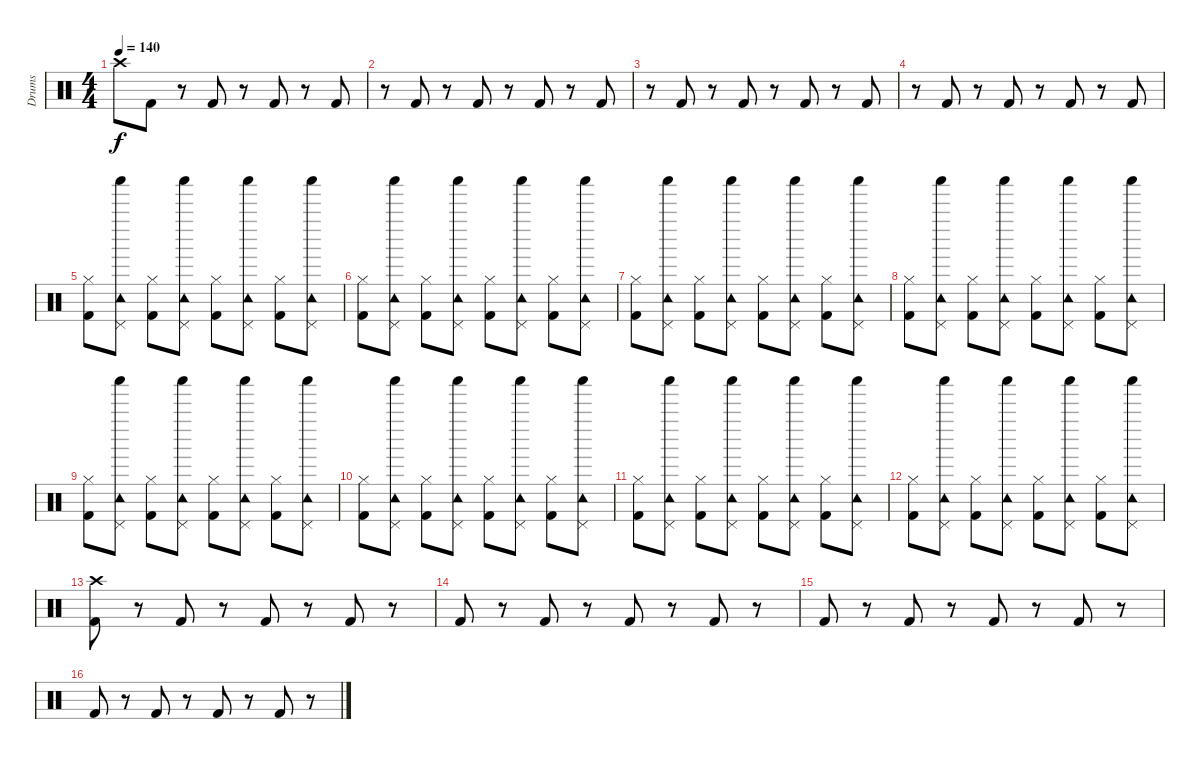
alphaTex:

\track ("Drums" "Drums") {instrument percussion}
\staff {score}
\articulation defaults
\ts (4 4)
\tempo 140
\clef neutral
\ks c "Crash high (hit)".8{dy f} "Kick (hit) 2".8
r.8 "Kick (hit) 2".8 r.8 "Kick (hit) 2".8 r.8 "Kick (hit) 2".8 |
r.8 "Kick (hit) 2".8 r.8 "Kick (hit) 2".8 r.8 "Kick (hit) 2".8 r.8 "Kick (hit) 2".8 |
r.8 "Kick (hit) 2".8 r.8 "Kick (hit) 2".8 r.8 "Kick (hit) 2".8 r.8 "Kick (hit) 2".8 |
r.8 "Kick (hit) 2".8 r.8 "Kick (hit) 2".8 r.8 "Kick (hit) 2".8 r.8 "Kick (hit) 2".8 |
("Kick (hit) 2" "Hi-Hat (closed)").8 ("Pedal Hi-Hat (hit)" "Tambourine (hit)" "Shaker (hit)").8 ("Kick (hit) 2" "Hi-Hat (closed)").8 ("Pedal Hi-Hat (hit)" "Tambourine (hit)" "Shaker (hit)").8 ("Kick (hit) 2" "Hi-Hat (closed)").8 ("Pedal Hi-Hat (hit)" "Tambourine (hit)" "Shaker (hit)").8 ("Kick (hit) 2" "Hi-Hat (closed)").8 ("Pedal Hi-Hat (hit)" "Tambourine (hit)" "Shaker (hit)").8 |
("Kick (hit) 2" "Hi-Hat (closed)").8 ("Pedal Hi-Hat (hit)" "Tambourine (hit)" "Shaker (hit)").8 ("Kick (hit) 2" "Hi-Hat (closed)").8 ("Pedal Hi-Hat (hit)" "Tambourine (hit)" "Shaker (hit)").8 ("Kick (hit) 2" "Hi-Hat (closed)").8 ("Pedal Hi-Hat (hit)" "Tambourine (hit)" "Shaker (hit)").8 ("Kick (hit) 2" "Hi-Hat (closed)").8 ("Pedal Hi-Hat (hit)" "Tambourine (hit)" "Shaker (hit)").8 |
("Kick (hit) 2" "Hi-Hat (closed)").8 ("Pedal Hi-Hat (hit)" "Tambourine (hit)" "Shaker (hit)").8 ("Kick (hit) 2" "Hi-Hat (closed)").8 ("Pedal Hi-Hat (hit)" "Tambourine (hit)" "Shaker (hit)").8 ("Kick (hit) 2" "Hi-Hat (closed)").8 ("Pedal Hi-Hat (hit)" "Tambourine (hit)" "Shaker (hit)").8 ("Kick (hit) 2" "Hi-Hat (closed)").8 ("Pedal Hi-Hat (hit)" "Tambourine (hit)" "Shaker (hit)").8 |
("Kick (hit) 2" "Hi-Hat (closed)").8 ("Pedal Hi-Hat (hit)" "Tambourine (hit)" "Shaker (hit)").8 ("Kick (hit) 2" "Hi-Hat (closed)").8 ("Pedal Hi-Hat (hit)" "Tambourine (hit)" "Shaker (hit)").8 ("Kick (hit) 2" "Hi-Hat (closed)").8 ("Pedal Hi-Hat (hit)" "Tambourine (hit)" "Shaker (hit)").8 ("Kick (hit) 2" "Hi-Hat (closed)").8 ("Pedal Hi-Hat (hit)" "Tambourine (hit)" "Shaker (hit)").8 |
("Kick (hit) 2" "Hi-Hat (closed)").8 ("Pedal Hi-Hat (hit)" "Tambourine (hit)" "Shaker (hit)").8 ("Kick (hit) 2" "Hi-Hat (closed)").8 ("Pedal Hi-Hat (hit)" "Tambourine (hit)" "Shaker (hit)").8 ("Kick (hit) 2" "Hi-Hat (closed)").8 ("Pedal Hi-Hat (hit)" "Tambourine (hit)" "Shaker (hit)").8 ("Kick (hit) 2" "Hi-Hat (closed)").8 ("Pedal Hi-Hat (hit)" "Tambourine (hit)" "Shaker (hit)").8 |
("Kick (hit) 2" "Hi-Hat (closed)").8 ("Pedal Hi-Hat (hit)" "Tambourine (hit)" "Shaker (hit)").8 ("Kick (hit) 2" "Hi-Hat (closed)").8 ("Pedal Hi-Hat (hit)" "Tambourine (hit)" "Shaker (hit)").8 ("Kick (hit) 2" "Hi-Hat (closed)").8 ("Pedal Hi-Hat (hit)" "Tambourine (hit)" "Shaker (hit)").8 ("Kick (hit) 2" "Hi-Hat (closed)").8 ("Pedal Hi-Hat (hit)" "Tambourine (hit)" "Shaker (hit)").8 |
("Kick (hit) 2" "Hi-Hat (closed)").8 ("Pedal Hi-Hat (hit)" "Tambourine (hit)" "Shaker (hit)").8 ("Kick (hit) 2" "Hi-Hat (closed)").8 ("Pedal Hi-Hat (hit)" "Tambourine (hit)" "Shaker (hit)").8 ("Kick (hit) 2" "Hi-Hat (closed)").8 ("Pedal Hi-Hat (hit)" "Tambourine (hit)" "Shaker (hit)").8 ("Kick (hit) 2" "Hi-Hat (closed)").8 ("Pedal Hi-Hat (hit)" "Tambourine (hit)" "Shaker (hit)").8 |
("Kick (hit) 2" "Hi-Hat (closed)").8 ("Pedal Hi-Hat (hit)" "Tambourine (hit)" "Shaker (hit)").8 ("Kick (hit) 2" "Hi-Hat (closed)").8 ("Pedal Hi-Hat (hit)" "Tambourine (hit)" "Shaker (hit)").8 ("Kick (hit) 2" "Hi-Hat (closed)").8 ("Pedal Hi-Hat (hit)" "Tambourine (hit)" "Shaker (hit)").8 ("Kick (hit) 2" "Hi-Hat (closed)").8 ("Pedal Hi-Hat (hit)" "Tambourine (hit)" "Shaker (hit)").8 |
("Kick (hit) 2" "Crash high (hit)").8 r.8 "Kick (hit) 2".8 r.8 "Kick (hit) 2".8 r.8 "Kick (hit) 2".8 r.8 |
"Kick (hit) 2".8 r.8 "Kick (hit) 2".8 r.8 "Kick (hit) 2".8 r.8 "Kick (hit) 2".8 r.8 |
"Kick (hit) 2".8 r.8 "Kick (hit) 2".8 r.8 "Kick (hit) 2".8 r.8 "Kick (hit) 2".8 r.8 |
"Kick (hit) 2".8 r.8 "Kick (hit) 2".8 r.8 "Kick (hit) 2".8 r.8 "Kick (hit) 2".8 r.8
